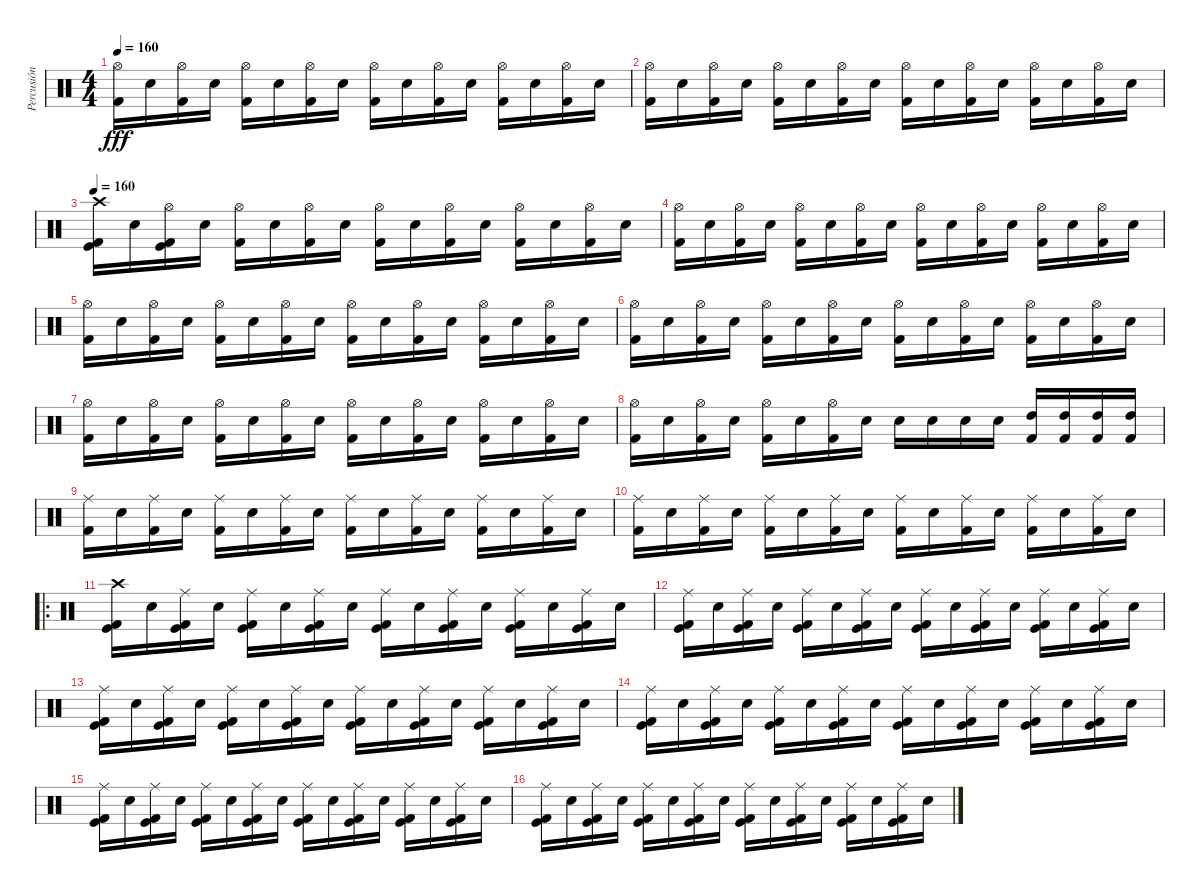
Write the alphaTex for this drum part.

\track ("Percusión" "Percusión") {instrument percussion}
\staff {score}
\articulation defaults
\ts (4 4)
\tempo 160
\clef neutral
\ks c
("Hi-Hat (open)" "Kick (hit) 2").16{dy fff} "Electric Snare (hit)".16 ("Hi-Hat (open)" "Kick (hit) 2").16 "Electric Snare (hit)".16 ("Hi-Hat (open)" "Kick (hit) 2").16 "Electric Snare (hit)".16 ("Hi-Hat (open)" "Kick (hit) 2").16 "Electric Snare (hit)".16 ("Hi-Hat (open)" "Kick (hit) 2").16 "Electric Snare (hit)".16 ("Hi-Hat (open)" "Kick (hit) 2").16 "Electric Snare (hit)".16 ("Hi-Hat (open)" "Kick (hit) 2").16 "Electric Snare (hit)".16 ("Hi-Hat (open)" "Kick (hit) 2").16 "Electric Snare (hit)".16 |
("Hi-Hat (open)" "Kick (hit) 2").16 "Electric Snare (hit)".16 ("Hi-Hat (open)" "Kick (hit) 2").16 "Electric Snare (hit)".16 ("Hi-Hat (open)" "Kick (hit) 2").16 "Electric Snare (hit)".16 ("Hi-Hat (open)" "Kick (hit) 2").16 "Electric Snare (hit)".16 ("Hi-Hat (open)" "Kick (hit) 2").16 "Electric Snare (hit)".16 ("Hi-Hat (open)" "Kick (hit) 2").16 "Electric Snare (hit)".16 ("Hi-Hat (open)" "Kick (hit) 2").16 "Electric Snare (hit)".16 ("Hi-Hat (open)" "Kick (hit) 2").16 "Electric Snare (hit)".16 |
\tempo 145
\tempo 160
("Crash high (hit)" "Kick (hit) 2" "Kick (hit)").16 "Electric Snare (hit)".16 ("Hi-Hat (open)" "Kick (hit) 2" "Kick (hit)").16 "Electric Snare (hit)".16 ("Hi-Hat (open)" "Kick (hit) 2").16 "Electric Snare (hit)".16 ("Hi-Hat (open)" "Kick (hit) 2").16 "Electric Snare (hit)".16 ("Hi-Hat (open)" "Kick (hit) 2").16 "Electric Snare (hit)".16 ("Hi-Hat (open)" "Kick (hit) 2").16 "Electric Snare (hit)".16 ("Hi-Hat (open)" "Kick (hit) 2").16 "Electric Snare (hit)".16 ("Hi-Hat (open)" "Kick (hit) 2").16 "Electric Snare (hit)".16 |
("Hi-Hat (open)" "Kick (hit) 2").16 "Electric Snare (hit)".16 ("Hi-Hat (open)" "Kick (hit) 2").16 "Electric Snare (hit)".16 ("Hi-Hat (open)" "Kick (hit) 2").16 "Electric Snare (hit)".16 ("Hi-Hat (open)" "Kick (hit) 2").16 "Electric Snare (hit)".16 ("Hi-Hat (open)" "Kick (hit) 2").16 "Electric Snare (hit)".16 ("Hi-Hat (open)" "Kick (hit) 2").16 "Electric Snare (hit)".16 ("Hi-Hat (open)" "Kick (hit) 2").16 "Electric Snare (hit)".16 ("Hi-Hat (open)" "Kick (hit) 2").16 "Electric Snare (hit)".16 |
("Hi-Hat (open)" "Kick (hit) 2").16 "Electric Snare (hit)".16 ("Hi-Hat (open)" "Kick (hit) 2").16 "Electric Snare (hit)".16 ("Hi-Hat (open)" "Kick (hit) 2").16 "Electric Snare (hit)".16 ("Hi-Hat (open)" "Kick (hit) 2").16 "Electric Snare (hit)".16 ("Hi-Hat (open)" "Kick (hit) 2").16 "Electric Snare (hit)".16 ("Hi-Hat (open)" "Kick (hit) 2").16 "Electric Snare (hit)".16 ("Hi-Hat (open)" "Kick (hit) 2").16 "Electric Snare (hit)".16 ("Hi-Hat (open)" "Kick (hit) 2").16 "Electric Snare (hit)".16 |
("Hi-Hat (open)" "Kick (hit) 2").16 "Electric Snare (hit)".16 ("Hi-Hat (open)" "Kick (hit) 2").16 "Electric Snare (hit)".16 ("Hi-Hat (open)" "Kick (hit) 2").16 "Electric Snare (hit)".16 ("Hi-Hat (open)" "Kick (hit) 2").16 "Electric Snare (hit)".16 ("Hi-Hat (open)" "Kick (hit) 2").16 "Electric Snare (hit)".16 ("Hi-Hat (open)" "Kick (hit) 2").16 "Electric Snare (hit)".16 ("Hi-Hat (open)" "Kick (hit) 2").16 "Electric Snare (hit)".16 ("Hi-Hat (open)" "Kick (hit) 2").16 "Electric Snare (hit)".16 |
("Hi-Hat (open)" "Kick (hit) 2").16 "Electric Snare (hit)".16 ("Hi-Hat (open)" "Kick (hit) 2").16 "Electric Snare (hit)".16 ("Hi-Hat (open)" "Kick (hit) 2").16 "Electric Snare (hit)".16 ("Hi-Hat (open)" "Kick (hit) 2").16 "Electric Snare (hit)".16 ("Hi-Hat (open)" "Kick (hit) 2").16 "Electric Snare (hit)".16 ("Hi-Hat (open)" "Kick (hit) 2").16 "Electric Snare (hit)".16 ("Hi-Hat (open)" "Kick (hit) 2").16 "Electric Snare (hit)".16 ("Hi-Hat (open)" "Kick (hit) 2").16 "Electric Snare (hit)".16 |
("Hi-Hat (open)" "Kick (hit) 2").16 "Electric Snare (hit)".16 ("Hi-Hat (open)" "Kick (hit) 2").16 "Electric Snare (hit)".16 ("Hi-Hat (open)" "Kick (hit) 2").16 "Electric Snare (hit)".16 ("Hi-Hat (open)" "Kick (hit) 2").16 "Electric Snare (hit)".16 "Electric Snare (hit)".16 "Electric Snare (hit)".16 "Electric Snare (hit)".16 "Electric Snare (hit)".16 ("High Tom (hit)" "Kick (hit) 2").16 ("High Tom (hit)" "Kick (hit) 2").16 ("High Tom (hit)" "Kick (hit) 2").16 ("High Tom (hit)" "Kick (hit) 2").16 |
("Ride (middle)" "Kick (hit) 2").16 "Electric Snare (hit)".16 ("Ride (middle)" "Kick (hit) 2").16 "Electric Snare (hit)".16 ("Ride (middle)" "Kick (hit) 2").16 "Electric Snare (hit)".16 ("Ride (middle)" "Kick (hit) 2").16 "Electric Snare (hit)".16 ("Ride (middle)" "Kick (hit) 2").16 "Electric Snare (hit)".16 ("Ride (middle)" "Kick (hit) 2").16 "Electric Snare (hit)".16 ("Ride (middle)" "Kick (hit) 2").16 "Electric Snare (hit)".16 ("Ride (middle)" "Kick (hit) 2").16 "Electric Snare (hit)".16 |
("Ride (middle)" "Kick (hit) 2").16 "Electric Snare (hit)".16 ("Ride (middle)" "Kick (hit) 2").16 "Electric Snare (hit)".16 ("Ride (middle)" "Kick (hit) 2").16 "Electric Snare (hit)".16 ("Ride (middle)" "Kick (hit) 2").16 "Electric Snare (hit)".16 ("Ride (middle)" "Kick (hit) 2").16 "Electric Snare (hit)".16 ("Ride (middle)" "Kick (hit) 2").16 "Electric Snare (hit)".16 ("Ride (middle)" "Kick (hit) 2").16 "Electric Snare (hit)".16 ("Ride (middle)" "Kick (hit) 2").16 "Electric Snare (hit)".16 |
\ro
("Crash high (hit)" "Kick (hit) 2" "Kick (hit)").16 "Electric Snare (hit)".16 ("Ride (middle)" "Kick (hit) 2" "Kick (hit)").16 "Electric Snare (hit)".16 ("Ride (middle)" "Kick (hit) 2" "Kick (hit)").16 "Electric Snare (hit)".16 ("Ride (middle)" "Kick (hit) 2" "Kick (hit)").16 "Electric Snare (hit)".16 ("Ride (middle)" "Kick (hit) 2" "Kick (hit)").16 "Electric Snare (hit)".16 ("Ride (middle)" "Kick (hit) 2" "Kick (hit)").16 "Electric Snare (hit)".16 ("Ride (middle)" "Kick (hit) 2" "Kick (hit)").16 "Electric Snare (hit)".16 ("Ride (middle)" "Kick (hit) 2" "Kick (hit)").16 "Electric Snare (hit)".16 |
("Ride (middle)" "Kick (hit) 2" "Kick (hit)").16 "Electric Snare (hit)".16 ("Ride (middle)" "Kick (hit) 2" "Kick (hit)").16 "Electric Snare (hit)".16 ("Ride (middle)" "Kick (hit) 2" "Kick (hit)").16 "Electric Snare (hit)".16 ("Ride (middle)" "Kick (hit) 2" "Kick (hit)").16 "Electric Snare (hit)".16 ("Ride (middle)" "Kick (hit) 2" "Kick (hit)").16 "Electric Snare (hit)".16 ("Ride (middle)" "Kick (hit) 2" "Kick (hit)").16 "Electric Snare (hit)".16 ("Ride (middle)" "Kick (hit) 2" "Kick (hit)").16 "Electric Snare (hit)".16 ("Ride (middle)" "Kick (hit) 2" "Kick (hit)").16 "Electric Snare (hit)".16 |
("Ride (middle)" "Kick (hit) 2" "Kick (hit)").16 "Electric Snare (hit)".16 ("Ride (middle)" "Kick (hit) 2" "Kick (hit)").16 "Electric Snare (hit)".16 ("Ride (middle)" "Kick (hit) 2" "Kick (hit)").16 "Electric Snare (hit)".16 ("Ride (middle)" "Kick (hit) 2" "Kick (hit)").16 "Electric Snare (hit)".16 ("Ride (middle)" "Kick (hit) 2" "Kick (hit)").16 "Electric Snare (hit)".16 ("Ride (middle)" "Kick (hit) 2" "Kick (hit)").16 "Electric Snare (hit)".16 ("Ride (middle)" "Kick (hit) 2" "Kick (hit)").16 "Electric Snare (hit)".16 ("Ride (middle)" "Kick (hit) 2" "Kick (hit)").16 "Electric Snare (hit)".16 |
("Ride (middle)" "Kick (hit) 2" "Kick (hit)").16 "Electric Snare (hit)".16 ("Ride (middle)" "Kick (hit) 2" "Kick (hit)").16 "Electric Snare (hit)".16 ("Ride (middle)" "Kick (hit) 2" "Kick (hit)").16 "Electric Snare (hit)".16 ("Ride (middle)" "Kick (hit) 2" "Kick (hit)").16 "Electric Snare (hit)".16 ("Ride (middle)" "Kick (hit) 2" "Kick (hit)").16 "Electric Snare (hit)".16 ("Ride (middle)" "Kick (hit) 2" "Kick (hit)").16 "Electric Snare (hit)".16 ("Ride (middle)" "Kick (hit) 2" "Kick (hit)").16 "Electric Snare (hit)".16 ("Ride (middle)" "Kick (hit) 2" "Kick (hit)").16 "Electric Snare (hit)".16 |
("Ride (middle)" "Kick (hit) 2" "Kick (hit)").16 "Electric Snare (hit)".16 ("Ride (middle)" "Kick (hit) 2" "Kick (hit)").16 "Electric Snare (hit)".16 ("Ride (middle)" "Kick (hit) 2" "Kick (hit)").16 "Electric Snare (hit)".16 ("Ride (middle)" "Kick (hit) 2" "Kick (hit)").16 "Electric Snare (hit)".16 ("Ride (middle)" "Kick (hit) 2" "Kick (hit)").16 "Electric Snare (hit)".16 ("Ride (middle)" "Kick (hit) 2" "Kick (hit)").16 "Electric Snare (hit)".16 ("Ride (middle)" "Kick (hit) 2" "Kick (hit)").16 "Electric Snare (hit)".16 ("Ride (middle)" "Kick (hit) 2" "Kick (hit)").16 "Electric Snare (hit)".16 |
("Ride (middle)" "Kick (hit) 2" "Kick (hit)").16 "Electric Snare (hit)".16 ("Ride (middle)" "Kick (hit) 2" "Kick (hit)").16 "Electric Snare (hit)".16 ("Ride (middle)" "Kick (hit) 2" "Kick (hit)").16 "Electric Snare (hit)".16 ("Ride (middle)" "Kick (hit) 2" "Kick (hit)").16 "Electric Snare (hit)".16 ("Ride (middle)" "Kick (hit) 2" "Kick (hit)").16 "Electric Snare (hit)".16 ("Ride (middle)" "Kick (hit) 2" "Kick (hit)").16 "Electric Snare (hit)".16 ("Ride (middle)" "Kick (hit) 2" "Kick (hit)").16 "Electric Snare (hit)".16 ("Ride (middle)" "Kick (hit) 2" "Kick (hit)").16 "Electric Snare (hit)".16
